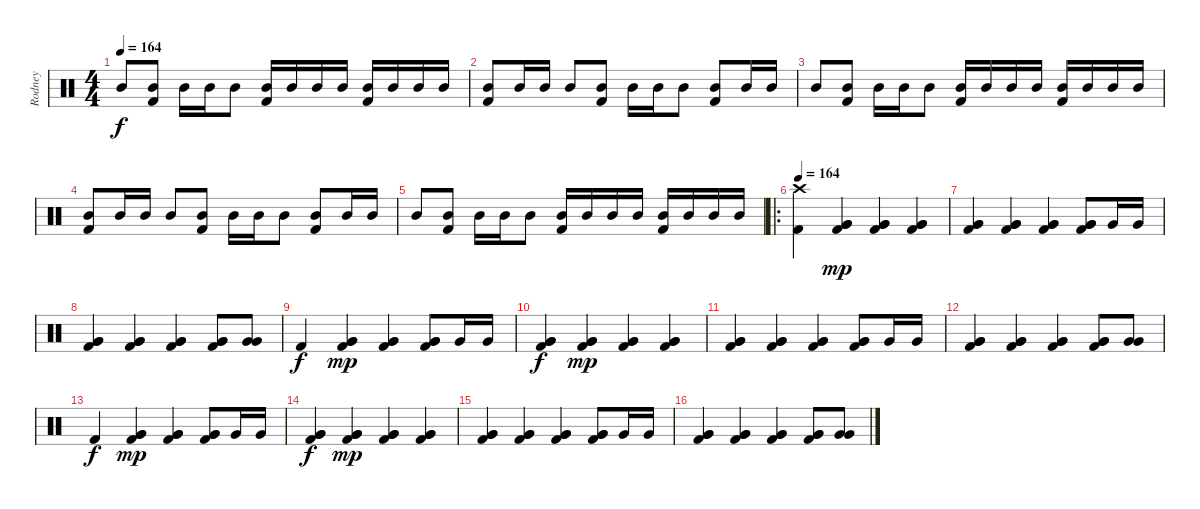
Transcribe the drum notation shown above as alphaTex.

\track ("Rodney" "Rodney") {instrument percussion}
\staff {score}
\articulation defaults
\ts (4 4)
\tempo 164
\clef neutral
\ks c "Mid Tom (hit)".8{dy f}
("Mid Tom (hit)" "Kick (hit) 2").8 "Mid Tom (hit)".16 "Mid Tom (hit)".16 "Mid Tom (hit)".8 ("Mid Tom (hit)" "Kick (hit) 2").16 "Mid Tom (hit)".16 "Mid Tom (hit)".16 "Mid Tom (hit)".16 ("Mid Tom (hit)" "Kick (hit) 2").16 "Mid Tom (hit)".16 "Mid Tom (hit)".16 "Mid Tom (hit)".16 |
("Mid Tom (hit)" "Kick (hit) 2").8 "Mid Tom (hit)".16 "Mid Tom (hit)".16 "Mid Tom (hit)".8 ("Mid Tom (hit)" "Kick (hit) 2").8 "Mid Tom (hit)".16 "Mid Tom (hit)".16 "Mid Tom (hit)".8 ("Mid Tom (hit)" "Kick (hit) 2").8 "Mid Tom (hit)".16 "Mid Tom (hit)".16 |
"Mid Tom (hit)".8 ("Mid Tom (hit)" "Kick (hit) 2").8 "Mid Tom (hit)".16 "Mid Tom (hit)".16 "Mid Tom (hit)".8 ("Mid Tom (hit)" "Kick (hit) 2").16 "Mid Tom (hit)".16 "Mid Tom (hit)".16 "Mid Tom (hit)".16 ("Mid Tom (hit)" "Kick (hit) 2").16 "Mid Tom (hit)".16 "Mid Tom (hit)".16 "Mid Tom (hit)".16 |
("Mid Tom (hit)" "Kick (hit) 2").8 "Mid Tom (hit)".16 "Mid Tom (hit)".16 "Mid Tom (hit)".8 ("Mid Tom (hit)" "Kick (hit) 2").8 "Mid Tom (hit)".16 "Mid Tom (hit)".16 "Mid Tom (hit)".8 ("Mid Tom (hit)" "Kick (hit) 2").8 "Mid Tom (hit)".16 "Mid Tom (hit)".16 |
"Mid Tom (hit)".8 ("Mid Tom (hit)" "Kick (hit) 2").8 "Mid Tom (hit)".16 "Mid Tom (hit)".16 "Mid Tom (hit)".8 ("Mid Tom (hit)" "Kick (hit) 2").16 "Mid Tom (hit)".16 "Mid Tom (hit)".16 "Mid Tom (hit)".16 ("Mid Tom (hit)" "Kick (hit) 2").16 "Mid Tom (hit)".16 "Mid Tom (hit)".16 "Mid Tom (hit)".16 |
\ro
\tempo 164
("Crash high (hit)" "Kick (hit) 2").4 ("Very Low Tom (hit)" "Very Low Tom (hit)" "Kick (hit) 2").4{dy mp} ("Very Low Tom (hit)" "Very Low Tom (hit)" "Kick (hit) 2").4 ("Very Low Tom (hit)" "Very Low Tom (hit)" "Kick (hit) 2").4 |
("Very Low Tom (hit)" "Very Low Tom (hit)" "Kick (hit) 2").4 ("Very Low Tom (hit)" "Very Low Tom (hit)" "Kick (hit) 2").4 ("Very Low Tom (hit)" "Very Low Tom (hit)" "Kick (hit) 2").4 ("Very Low Tom (hit)" "Very Low Tom (hit)" "Kick (hit) 2").8 "Very Low Tom (hit)".16 "Very Low Tom (hit)".16 |
("Very Low Tom (hit)" "Very Low Tom (hit)" "Kick (hit) 2").4 ("Very Low Tom (hit)" "Very Low Tom (hit)" "Kick (hit) 2").4 ("Very Low Tom (hit)" "Very Low Tom (hit)" "Kick (hit) 2").4 ("Very Low Tom (hit)" "Very Low Tom (hit)" "Kick (hit) 2").8 ("Very Low Tom (hit)" "Very Low Tom (hit)").8 |
"Kick (hit) 2".4{dy f} ("Very Low Tom (hit)" "Very Low Tom (hit)" "Kick (hit) 2").4{dy mp} ("Very Low Tom (hit)" "Very Low Tom (hit)" "Kick (hit) 2").4 ("Very Low Tom (hit)" "Very Low Tom (hit)" "Kick (hit) 2").8 "Very Low Tom (hit)".16 "Very Low Tom (hit)".16 |
("Very Low Tom (hit)" "Very Low Tom (hit)" "Kick (hit) 2").4{dy f} ("Very Low Tom (hit)" "Very Low Tom (hit)" "Kick (hit) 2").4{dy mp} ("Very Low Tom (hit)" "Very Low Tom (hit)" "Kick (hit) 2").4 ("Very Low Tom (hit)" "Very Low Tom (hit)" "Kick (hit) 2").4 |
("Very Low Tom (hit)" "Very Low Tom (hit)" "Kick (hit) 2").4 ("Very Low Tom (hit)" "Very Low Tom (hit)" "Kick (hit) 2").4 ("Very Low Tom (hit)" "Very Low Tom (hit)" "Kick (hit) 2").4 ("Very Low Tom (hit)" "Very Low Tom (hit)" "Kick (hit) 2").8 "Very Low Tom (hit)".16 "Very Low Tom (hit)".16 |
("Very Low Tom (hit)" "Very Low Tom (hit)" "Kick (hit) 2").4 ("Very Low Tom (hit)" "Very Low Tom (hit)" "Kick (hit) 2").4 ("Very Low Tom (hit)" "Very Low Tom (hit)" "Kick (hit) 2").4 ("Very Low Tom (hit)" "Very Low Tom (hit)" "Kick (hit) 2").8 ("Very Low Tom (hit)" "Very Low Tom (hit)").8 |
"Kick (hit) 2".4{dy f} ("Very Low Tom (hit)" "Very Low Tom (hit)" "Kick (hit) 2").4{dy mp} ("Very Low Tom (hit)" "Very Low Tom (hit)" "Kick (hit) 2").4 ("Very Low Tom (hit)" "Very Low Tom (hit)" "Kick (hit) 2").8 "Very Low Tom (hit)".16 "Very Low Tom (hit)".16 |
("Very Low Tom (hit)" "Very Low Tom (hit)" "Kick (hit) 2").4{dy f} ("Very Low Tom (hit)" "Very Low Tom (hit)" "Kick (hit) 2").4{dy mp} ("Very Low Tom (hit)" "Very Low Tom (hit)" "Kick (hit) 2").4 ("Very Low Tom (hit)" "Very Low Tom (hit)" "Kick (hit) 2").4 |
("Very Low Tom (hit)" "Very Low Tom (hit)" "Kick (hit) 2").4 ("Very Low Tom (hit)" "Very Low Tom (hit)" "Kick (hit) 2").4 ("Very Low Tom (hit)" "Very Low Tom (hit)" "Kick (hit) 2").4 ("Very Low Tom (hit)" "Very Low Tom (hit)" "Kick (hit) 2").8 "Very Low Tom (hit)".16 "Very Low Tom (hit)".16 |
("Very Low Tom (hit)" "Very Low Tom (hit)" "Kick (hit) 2").4 ("Very Low Tom (hit)" "Very Low Tom (hit)" "Kick (hit) 2").4 ("Very Low Tom (hit)" "Very Low Tom (hit)" "Kick (hit) 2").4 ("Very Low Tom (hit)" "Very Low Tom (hit)" "Kick (hit) 2").8 ("Very Low Tom (hit)" "Very Low Tom (hit)").8
